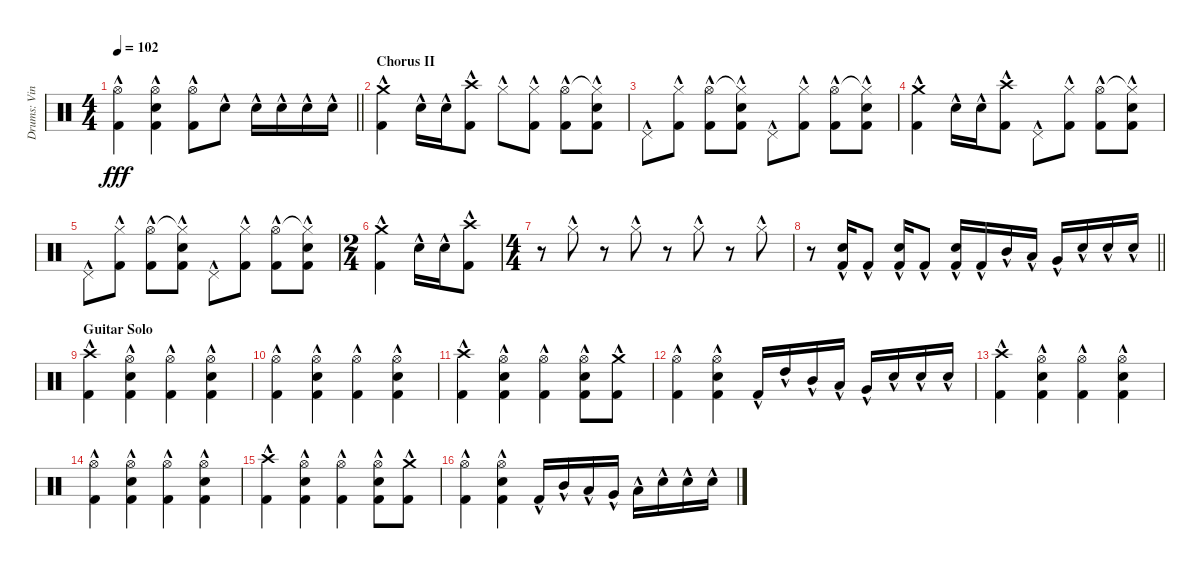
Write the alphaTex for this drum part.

\track ("Drums: Vinny" "Drums: Vin") {instrument percussion}
\staff {score}
\articulation defaults
\ts (4 4)
\tempo 102
\clef neutral
\barLineRight lightlight
\ks c
("Hi-Hat (open)"{hac} "Kick (hit) 2"{hac}).4{dy fff} ("Hi-Hat (open)"{hac} "Snare (hit) 2"{hac} "Kick (hit) 2"{hac}).4 ("Hi-Hat (open)"{hac} "Kick (hit) 2"{hac}).8 "Snare (hit) 2"{hac}.8 "Snare (hit) 2"{hac}.16 "Snare (hit) 2"{hac}.16 "Snare (hit) 2"{hac}.16 "Snare (hit) 2"{hac}.16 |
\section ("" "Chorus II")
("Crash medium (hit)"{hac} "Kick (hit) 2"{hac}).4 "Snare (hit) 2"{hac}.16 "Snare (hit) 2"{hac}.16 ("Crash high (hit)"{hac} "Kick (hit) 2"{hac}).8 "Hi-Hat (closed)"{hac}.8 ("Hi-Hat (closed)"{hac} "Kick (hit) 2"{hac}).8 ("Hi-Hat (open)"{hac} "Kick (hit) 2"{hac}).8 ("Hi-Hat (closed)"{t} "Snare (hit) 2"{hac} "Kick (hit) 2").8 |
"Pedal Hi-Hat (hit)"{hac}.8 ("Hi-Hat (closed)"{hac} "Kick (hit) 2"{hac}).8 ("Hi-Hat (open)"{hac} "Kick (hit) 2"{hac}).8 ("Hi-Hat (closed)"{t} "Snare (hit) 2"{hac} "Kick (hit) 2").8 "Pedal Hi-Hat (hit)"{hac}.8 ("Hi-Hat (closed)"{hac} "Kick (hit) 2"{hac}).8 ("Hi-Hat (open)"{hac} "Kick (hit) 2"{hac}).8 ("Hi-Hat (closed)"{t} "Snare (hit) 2"{hac} "Kick (hit) 2").8 |
("Crash medium (hit)"{hac} "Kick (hit) 2"{hac}).4 "Snare (hit) 2"{hac}.16 "Snare (hit) 2"{hac}.16 ("Crash high (hit)"{hac} "Kick (hit) 2"{hac}).8 "Pedal Hi-Hat (hit)"{hac}.8 ("Hi-Hat (closed)"{hac} "Kick (hit) 2"{hac}).8 ("Hi-Hat (open)"{hac} "Kick (hit) 2"{hac}).8 ("Hi-Hat (closed)"{t} "Snare (hit) 2"{hac} "Kick (hit) 2").8 |
"Pedal Hi-Hat (hit)"{hac}.8 ("Hi-Hat (closed)"{hac} "Kick (hit) 2"{hac}).8 ("Hi-Hat (open)"{hac} "Kick (hit) 2"{hac}).8 ("Hi-Hat (closed)"{t} "Snare (hit) 2"{hac} "Kick (hit) 2").8 "Pedal Hi-Hat (hit)"{hac}.8 ("Hi-Hat (closed)"{hac} "Kick (hit) 2"{hac}).8 ("Hi-Hat (open)"{hac} "Kick (hit) 2"{hac}).8 ("Hi-Hat (closed)"{t} "Snare (hit) 2"{hac} "Kick (hit) 2").8 |
\ts (2 4)
("Crash medium (hit)"{hac} "Kick (hit) 2"{hac}).4 "Snare (hit) 2"{hac}.16 "Snare (hit) 2"{hac}.16 ("Crash high (hit)"{hac} "Kick (hit) 2"{hac}).8 |
\ts (4 4)
r.8 "Hi-Hat (closed)"{hac}.8 r.8 "Hi-Hat (closed)"{hac}.8 r.8 "Hi-Hat (closed)"{hac}.8 r.8 "Hi-Hat (closed)"{hac}.8 |
\barLineRight lightlight
r.8 ("Electric Snare (hit)"{hac} "Kick (hit) 2"{hac}).16 "Kick (hit) 2"{hac}.8 ("Electric Snare (hit)"{hac} "Kick (hit) 2"{hac}).16 "Kick (hit) 2"{hac}.8 ("Electric Snare (hit)"{hac} "Kick (hit) 2"{hac}).16 "Kick (hit) 2"{hac}.16 "Mid Tom (hit)"{hac}.16 "Low Tom (hit)"{hac}.16 "Very Low Tom (hit)"{hac}.16 "Snare (hit) 2"{hac}.16 "Snare (hit) 2"{hac}.16 "Snare (hit) 2"{hac}.16 |
\section ("" "Guitar Solo")
("Crash high (hit)"{hac} "Kick (hit) 2"{hac}).4 ("Hi-Hat (open)"{hac} "Snare (hit) 2"{hac} "Kick (hit) 2"{hac}).4 ("Hi-Hat (open)"{hac} "Kick (hit) 2"{hac}).4 ("Hi-Hat (open)"{hac} "Snare (hit) 2"{hac} "Kick (hit) 2"{hac}).4 |
("Hi-Hat (open)"{hac} "Kick (hit) 2"{hac}).4 ("Hi-Hat (open)"{hac} "Snare (hit) 2"{hac} "Kick (hit) 2"{hac}).4 ("Hi-Hat (open)"{hac} "Kick (hit) 2"{hac}).4 ("Hi-Hat (open)"{hac} "Snare (hit) 2"{hac} "Kick (hit) 2"{hac}).4 |
("Crash high (hit)"{hac} "Kick (hit) 2"{hac}).4 ("Hi-Hat (open)"{hac} "Snare (hit) 2"{hac} "Kick (hit) 2"{hac}).4 ("Hi-Hat (open)"{hac} "Kick (hit) 2"{hac}).4 ("Hi-Hat (open)"{hac} "Snare (hit) 2"{hac} "Kick (hit) 2"{hac}).8 ("Crash medium (hit)"{hac} "Kick (hit) 2"{hac}).8 |
("Hi-Hat (open)"{hac} "Kick (hit) 2"{hac}).4 ("Hi-Hat (open)"{hac} "Snare (hit) 2"{hac} "Kick (hit) 2"{hac}).4 "Kick (hit) 2"{hac}.16 "High Tom (hit)"{hac}.16 "Mid Tom (hit)"{hac}.16 "Low Tom (hit)"{hac}.16 "Very Low Tom (hit)"{hac}.16 "Snare (hit) 2"{hac}.16 "Snare (hit) 2"{hac}.16 "Snare (hit) 2"{hac}.16 |
("Crash high (hit)"{hac} "Kick (hit) 2"{hac}).4 ("Hi-Hat (open)"{hac} "Snare (hit) 2"{hac} "Kick (hit) 2"{hac}).4 ("Hi-Hat (open)"{hac} "Kick (hit) 2"{hac}).4 ("Hi-Hat (open)"{hac} "Snare (hit) 2"{hac} "Kick (hit) 2"{hac}).4 |
("Hi-Hat (open)"{hac} "Kick (hit) 2"{hac}).4 ("Hi-Hat (open)"{hac} "Snare (hit) 2"{hac} "Kick (hit) 2"{hac}).4 ("Hi-Hat (open)"{hac} "Kick (hit) 2"{hac}).4 ("Hi-Hat (open)"{hac} "Snare (hit) 2"{hac} "Kick (hit) 2"{hac}).4 |
("Crash high (hit)"{hac} "Kick (hit) 2"{hac}).4 ("Hi-Hat (open)"{hac} "Snare (hit) 2"{hac} "Kick (hit) 2"{hac}).4 ("Hi-Hat (open)"{hac} "Kick (hit) 2"{hac}).4 ("Hi-Hat (open)"{hac} "Snare (hit) 2"{hac} "Kick (hit) 2"{hac}).8 ("Crash medium (hit)"{hac} "Kick (hit) 2"{hac}).8 |
("Hi-Hat (open)"{hac} "Kick (hit) 2"{hac}).4 ("Hi-Hat (open)"{hac} "Snare (hit) 2"{hac} "Kick (hit) 2"{hac}).4 "Kick (hit) 2"{hac}.16 "Mid Tom (hit)"{hac}.16 "Low Tom (hit)"{hac}.16 "Very Low Tom (hit)"{hac}.16 "Low Floor Tom (hit)"{hac}.16 "Snare (hit) 2"{hac}.16 "Snare (hit) 2"{hac}.16 "Snare (hit) 2"{hac}.16
